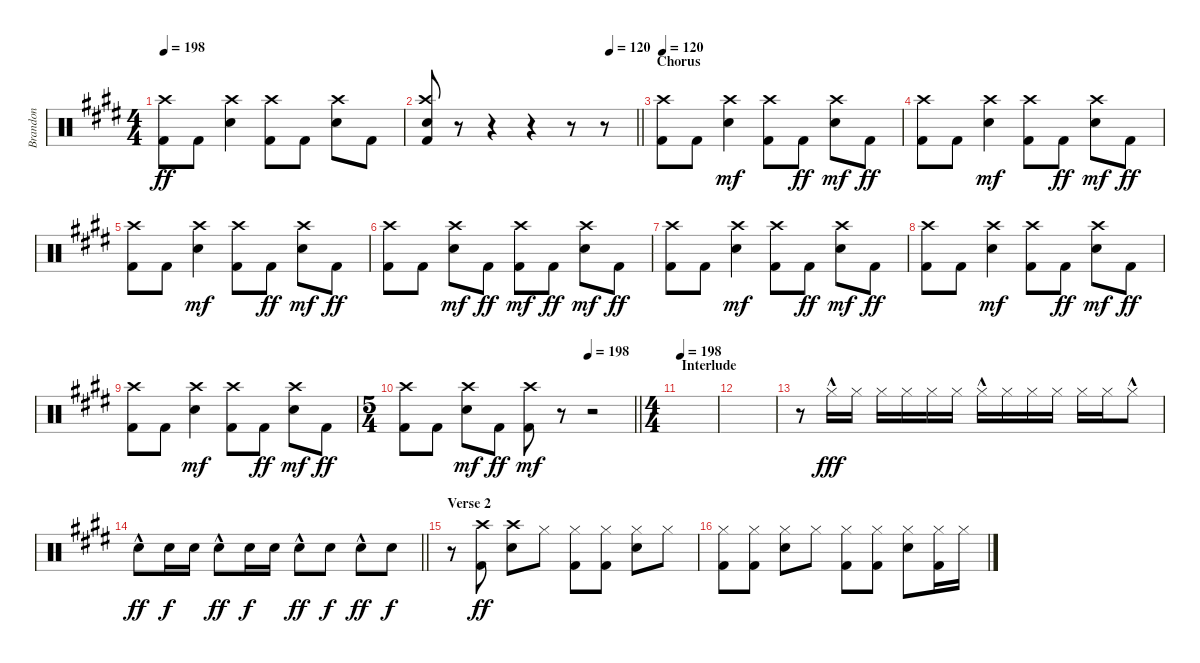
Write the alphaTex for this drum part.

\track ("Brandon" "Brandon") {instrument percussion}
\staff {score}
\articulation defaults
\ts (4 4)
\tempo 198
\clef neutral
\ks e
("Kick (hit) 2" "Crash high (hit)").8{dy ff} "Kick (hit) 2".8 ("Snare (hit) 2" "Crash high (hit)").4 ("Kick (hit) 2" "Crash high (hit)").8 "Kick (hit) 2".8 ("Snare (hit) 2" "Crash high (hit)").8 "Kick (hit) 2".8 |
\tempo (120 0.875)
\barLineRight lightlight
("Kick (hit) 2" "Snare (hit) 2" "Crash high (hit)").8 r.8 r.4 r.4 r.8 r.8 |
\section ("" "Chorus")
\tempo 120
("Kick (hit) 2" "Crash high (hit)").8 "Kick (hit) 2".8 ("Snare (hit) 2" "Crash high (hit)").4{dy mf} ("Kick (hit) 2" "Crash high (hit)").8 "Kick (hit) 2".8{dy ff} ("Snare (hit) 2" "Crash high (hit)").8{dy mf} "Kick (hit) 2".8{dy ff} |
("Kick (hit) 2" "Crash high (hit)").8 "Kick (hit) 2".8 ("Snare (hit) 2" "Crash high (hit)").4{dy mf} ("Kick (hit) 2" "Crash high (hit)").8 "Kick (hit) 2".8{dy ff} ("Snare (hit) 2" "Crash high (hit)").8{dy mf} "Kick (hit) 2".8{dy ff} |
("Kick (hit) 2" "Crash high (hit)").8 "Kick (hit) 2".8 ("Snare (hit) 2" "Crash high (hit)").4{dy mf} ("Kick (hit) 2" "Crash high (hit)").8 "Kick (hit) 2".8{dy ff} ("Snare (hit) 2" "Crash high (hit)").8{dy mf} "Kick (hit) 2".8{dy ff} |
("Kick (hit) 2" "Crash high (hit)").8 "Kick (hit) 2".8 ("Snare (hit) 2" "Crash high (hit)").8{dy mf} "Kick (hit) 2".8{dy ff} ("Kick (hit) 2" "Crash high (hit)").8{dy mf} "Kick (hit) 2".8{dy ff} ("Snare (hit) 2" "Crash high (hit)").8{dy mf} "Kick (hit) 2".8{dy ff} |
("Kick (hit) 2" "Crash high (hit)").8 "Kick (hit) 2".8 ("Snare (hit) 2" "Crash high (hit)").4{dy mf} ("Kick (hit) 2" "Crash high (hit)").8 "Kick (hit) 2".8{dy ff} ("Snare (hit) 2" "Crash high (hit)").8{dy mf} "Kick (hit) 2".8{dy ff} |
("Kick (hit) 2" "Crash high (hit)").8 "Kick (hit) 2".8 ("Snare (hit) 2" "Crash high (hit)").4{dy mf} ("Kick (hit) 2" "Crash high (hit)").8 "Kick (hit) 2".8{dy ff} ("Snare (hit) 2" "Crash high (hit)").8{dy mf} "Kick (hit) 2".8{dy ff} |
("Kick (hit) 2" "Crash high (hit)").8 "Kick (hit) 2".8 ("Snare (hit) 2" "Crash high (hit)").4{dy mf} ("Kick (hit) 2" "Crash high (hit)").8 "Kick (hit) 2".8{dy ff} ("Snare (hit) 2" "Crash high (hit)").8{dy mf} "Kick (hit) 2".8{dy ff} |
\ts (5 4)
\tempo (198 0.8)
\barLineRight lightlight
("Kick (hit) 2" "Crash high (hit)").8 "Kick (hit) 2".8 ("Snare (hit) 2" "Crash high (hit)").8{dy mf} "Kick (hit) 2".8{dy ff} ("Kick (hit) 2" "Crash high (hit)").8{dy mf} r.8{volume 0} r.2 |
\ts (4 4)
\section ("" "Interlude")
\tempo 198
|
|
r.8 "Hi-Hat (closed)"{hac}.16{dy fff} "Hi-Hat (closed)".16 "Hi-Hat (closed)".16 "Hi-Hat (closed)".16 "Hi-Hat (closed)".16 "Hi-Hat (closed)".16 "Hi-Hat (closed)"{hac}.16 "Hi-Hat (closed)".16 "Hi-Hat (closed)".16 "Hi-Hat (closed)".16 "Hi-Hat (closed)".16 "Hi-Hat (closed)".16 "Hi-Hat (closed)"{hac}.8 |
\barLineRight lightlight "Snare (hit) 2"{hac}.8{dy ff} "Snare (hit) 2".16{dy f} "Snare (hit) 2".16 "Snare (hit) 2"{hac}.8{dy ff} "Snare (hit) 2".16{dy f} "Snare (hit) 2".16 "Snare (hit) 2"{hac}.8{dy ff} "Snare (hit) 2".8{dy f} "Snare (hit) 2"{hac}.8{dy ff} "Snare (hit) 2".8{dy f}
|
\section ("" "Verse 2")
r.8 ("Kick (hit) 2" "Crash high (hit)").8{dy ff} ("Snare (hit) 2" "Crash high (hit)").8 "Hi-Hat (closed)".8 ("Kick (hit) 2" "Hi-Hat (closed)").8 ("Kick (hit) 2" "Hi-Hat (closed)").8 ("Snare (hit) 2" "Hi-Hat (closed)").8 "Hi-Hat (closed)".8 |
("Kick (hit) 2" "Hi-Hat (closed)").8 ("Kick (hit) 2" "Hi-Hat (closed)").8 ("Snare (hit) 2" "Hi-Hat (closed)").8 "Hi-Hat (closed)".8 ("Kick (hit) 2" "Hi-Hat (closed)").8 ("Kick (hit) 2" "Hi-Hat (closed)").8 ("Snare (hit) 2" "Hi-Hat (closed)").8 ("Kick (hit) 2" "Hi-Hat (closed)").16 "Hi-Hat (closed)".16
